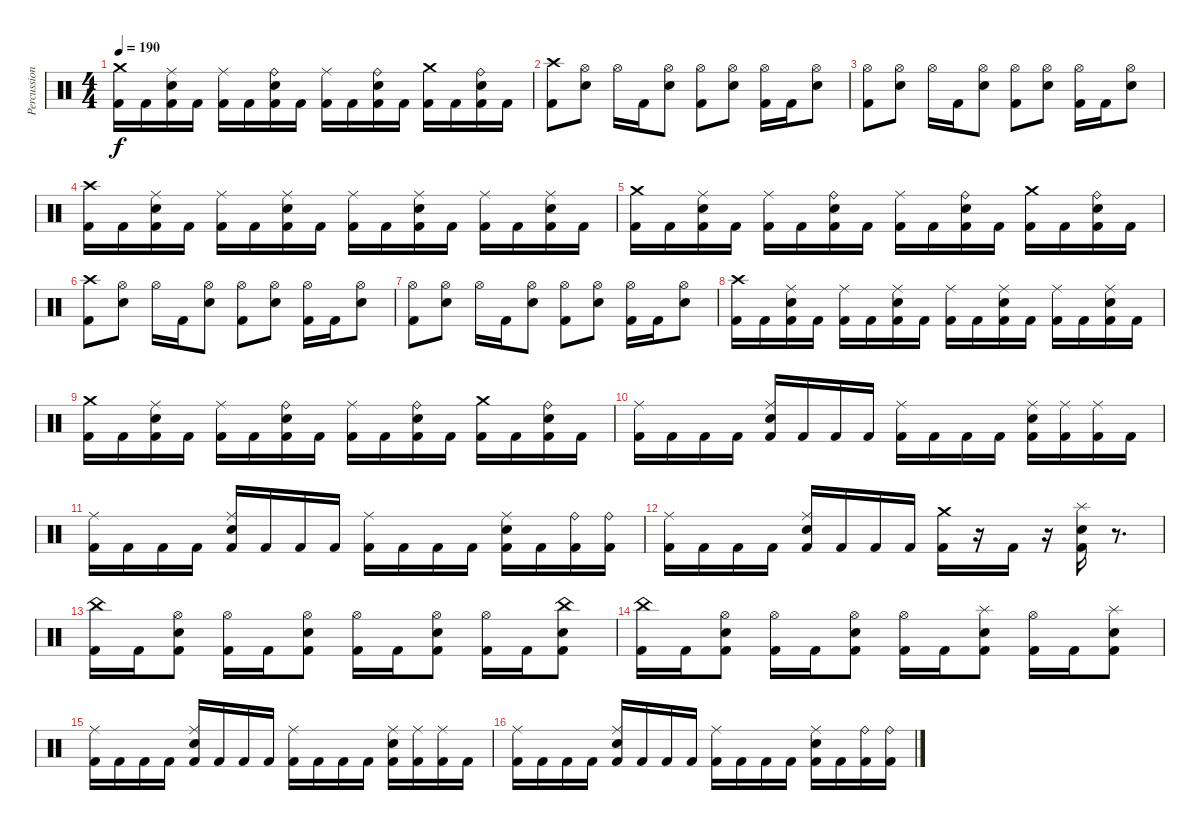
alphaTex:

\track ("Percussion" "Percussion") {instrument percussion}
\staff {score}
\articulation defaults
\ts (4 4)
\tempo 190
\clef neutral
\ks c
("Crash medium (hit)" "Kick (hit) 2").16{dy f} "Kick (hit) 2".16 ("Ride (middle)" "Snare (hit) 2" "Kick (hit) 2").16 "Kick (hit) 2".16 ("Ride (middle)" "Kick (hit) 2").16 "Kick (hit) 2".16 ("Ride (bell)" "Snare (hit) 2" "Kick (hit) 2").16 "Kick (hit) 2".16 ("Ride (middle)" "Kick (hit) 2").16 "Kick (hit) 2".16 ("Ride (bell)" "Snare (hit) 2" "Kick (hit) 2").16 "Kick (hit) 2".16 ("Crash medium (hit)" "Kick (hit) 2").16 "Kick (hit) 2".16 ("Ride (bell)" "Snare (hit) 2" "Kick (hit) 2").16 "Kick (hit) 2".16 |
("Crash high (hit)" "Kick (hit) 2").8 ("Hi-Hat (open)" "Snare (hit) 2").8 "Hi-Hat (open)".16 "Kick (hit) 2".16 ("Hi-Hat (open)" "Snare (hit) 2").8 ("Hi-Hat (open)" "Kick (hit) 2").8 ("Hi-Hat (open)" "Snare (hit) 2").8 ("Hi-Hat (open)" "Kick (hit) 2").16 "Kick (hit) 2".16 ("Hi-Hat (open)" "Snare (hit) 2").8 |
("Hi-Hat (open)" "Kick (hit) 2").8 ("Hi-Hat (open)" "Snare (hit) 2").8 "Hi-Hat (open)".16 "Kick (hit) 2".16 ("Hi-Hat (open)" "Snare (hit) 2").8 ("Hi-Hat (open)" "Kick (hit) 2").8 ("Hi-Hat (open)" "Snare (hit) 2").8 ("Hi-Hat (open)" "Kick (hit) 2").16 "Kick (hit) 2".16 ("Hi-Hat (open)" "Snare (hit) 2").8 |
("Crash high (hit)" "Kick (hit) 2").16 "Kick (hit) 2".16 ("Ride (middle)" "Snare (hit) 2" "Kick (hit) 2").16 "Kick (hit) 2".16 ("Ride (middle)" "Kick (hit) 2").16 "Kick (hit) 2".16 ("Ride (middle)" "Snare (hit) 2" "Kick (hit) 2").16 "Kick (hit) 2".16 ("Ride (middle)" "Kick (hit) 2").16 "Kick (hit) 2".16 ("Ride (middle)" "Snare (hit) 2" "Kick (hit) 2").16 "Kick (hit) 2".16 ("Ride (middle)" "Kick (hit) 2").16 "Kick (hit) 2".16 ("Ride (middle)" "Snare (hit) 2" "Kick (hit) 2").16 "Kick (hit) 2".16 |
("Crash medium (hit)" "Kick (hit) 2").16 "Kick (hit) 2".16 ("Ride (middle)" "Snare (hit) 2" "Kick (hit) 2").16 "Kick (hit) 2".16 ("Ride (middle)" "Kick (hit) 2").16 "Kick (hit) 2".16 ("Ride (bell)" "Snare (hit) 2" "Kick (hit) 2").16 "Kick (hit) 2".16 ("Ride (middle)" "Kick (hit) 2").16 "Kick (hit) 2".16 ("Ride (bell)" "Snare (hit) 2" "Kick (hit) 2").16 "Kick (hit) 2".16 ("Crash medium (hit)" "Kick (hit) 2").16 "Kick (hit) 2".16 ("Ride (bell)" "Snare (hit) 2" "Kick (hit) 2").16 "Kick (hit) 2".16 |
("Crash high (hit)" "Kick (hit) 2").8 ("Hi-Hat (open)" "Snare (hit) 2").8 "Hi-Hat (open)".16 "Kick (hit) 2".16 ("Hi-Hat (open)" "Snare (hit) 2").8 ("Hi-Hat (open)" "Kick (hit) 2").8 ("Hi-Hat (open)" "Snare (hit) 2").8 ("Hi-Hat (open)" "Kick (hit) 2").16 "Kick (hit) 2".16 ("Hi-Hat (open)" "Snare (hit) 2").8 |
("Hi-Hat (open)" "Kick (hit) 2").8 ("Hi-Hat (open)" "Snare (hit) 2").8 "Hi-Hat (open)".16 "Kick (hit) 2".16 ("Hi-Hat (open)" "Snare (hit) 2").8 ("Hi-Hat (open)" "Kick (hit) 2").8 ("Hi-Hat (open)" "Snare (hit) 2").8 ("Hi-Hat (open)" "Kick (hit) 2").16 "Kick (hit) 2".16 ("Hi-Hat (open)" "Snare (hit) 2").8 |
("Crash high (hit)" "Kick (hit) 2").16 "Kick (hit) 2".16 ("Ride (middle)" "Snare (hit) 2" "Kick (hit) 2").16 "Kick (hit) 2".16 ("Ride (middle)" "Kick (hit) 2").16 "Kick (hit) 2".16 ("Ride (middle)" "Snare (hit) 2" "Kick (hit) 2").16 "Kick (hit) 2".16 ("Ride (middle)" "Kick (hit) 2").16 "Kick (hit) 2".16 ("Ride (middle)" "Snare (hit) 2" "Kick (hit) 2").16 "Kick (hit) 2".16 ("Ride (middle)" "Kick (hit) 2").16 "Kick (hit) 2".16 ("Ride (middle)" "Snare (hit) 2" "Kick (hit) 2").16 "Kick (hit) 2".16 |
("Crash medium (hit)" "Kick (hit) 2").16 "Kick (hit) 2".16 ("Ride (middle)" "Snare (hit) 2" "Kick (hit) 2").16 "Kick (hit) 2".16 ("Ride (middle)" "Kick (hit) 2").16 "Kick (hit) 2".16 ("Ride (bell)" "Snare (hit) 2" "Kick (hit) 2").16 "Kick (hit) 2".16 ("Ride (middle)" "Kick (hit) 2").16 "Kick (hit) 2".16 ("Ride (bell)" "Snare (hit) 2" "Kick (hit) 2").16 "Kick (hit) 2".16 ("Crash medium (hit)" "Kick (hit) 2").16 "Kick (hit) 2".16 ("Ride (bell)" "Snare (hit) 2" "Kick (hit) 2").16 "Kick (hit) 2".16 |
("Ride (middle)" "Kick (hit) 2").16 "Kick (hit) 2".16 "Kick (hit) 2".16 "Kick (hit) 2".16 ("Ride (middle)" "Snare (hit) 2" "Kick (hit) 2").16 "Kick (hit) 2".16 "Kick (hit) 2".16 "Kick (hit) 2".16 ("Ride (middle)" "Kick (hit) 2").16 "Kick (hit) 2".16 "Kick (hit) 2".16 "Kick (hit) 2".16 ("Ride (middle)" "Snare (hit) 2" "Kick (hit) 2").16 ("Ride (middle)" "Kick (hit) 2").16 ("Ride (middle)" "Kick (hit) 2").16 "Kick (hit) 2".16 |
("Ride (middle)" "Kick (hit) 2").16 "Kick (hit) 2".16 "Kick (hit) 2".16 "Kick (hit) 2".16 ("Ride (middle)" "Snare (hit) 2" "Kick (hit) 2").16 "Kick (hit) 2".16 "Kick (hit) 2".16 "Kick (hit) 2".16 ("Ride (middle)" "Kick (hit) 2").16 "Kick (hit) 2".16 "Kick (hit) 2".16 "Kick (hit) 2".16 ("Ride (middle)" "Snare (hit) 2" "Kick (hit) 2").16 "Kick (hit) 2".16 ("Ride (bell)" "Kick (hit) 2").16 ("Ride (bell)" "Kick (hit) 2").16 |
("Ride (middle)" "Kick (hit) 2").16 "Kick (hit) 2".16 "Kick (hit) 2".16 "Kick (hit) 2".16 ("Ride (middle)" "Snare (hit) 2" "Kick (hit) 2").16 "Kick (hit) 2".16 "Kick (hit) 2".16 "Kick (hit) 2".16 ("Crash medium (hit)" "Kick (hit) 2").16 r.16 "Kick (hit) 2".16 r.16 ("Splash (hit)" "Snare (hit) 2" "Kick (hit) 2").16 r.8{d} |
("China (hit)" "Kick (hit) 2").16 "Kick (hit) 2".16 ("Hi-Hat (open)" "Snare (hit) 2" "Kick (hit) 2").8 ("Hi-Hat (open)" "Kick (hit) 2").16 "Kick (hit) 2".16 ("Hi-Hat (open)" "Snare (hit) 2" "Kick (hit) 2").8 ("Hi-Hat (open)" "Kick (hit) 2").16 "Kick (hit) 2".16 ("Hi-Hat (open)" "Snare (hit) 2" "Kick (hit) 2").8 ("Hi-Hat (open)" "Kick (hit) 2").16 "Kick (hit) 2".16 ("China (hit)" "Snare (hit) 2" "Kick (hit) 2").8 |
("China (hit)" "Kick (hit) 2").16 "Kick (hit) 2".16 ("Hi-Hat (open)" "Snare (hit) 2" "Kick (hit) 2").8 ("Hi-Hat (open)" "Kick (hit) 2").16 "Kick (hit) 2".16 ("Hi-Hat (open)" "Snare (hit) 2" "Kick (hit) 2").8 ("Hi-Hat (open)" "Kick (hit) 2").16 "Kick (hit) 2".16 ("Splash (hit)" "Snare (hit) 2" "Kick (hit) 2").8 ("Hi-Hat (open)" "Kick (hit) 2").16 "Kick (hit) 2".16 ("Splash (hit)" "Snare (hit) 2" "Kick (hit) 2").8 |
("Ride (middle)" "Kick (hit) 2").16 "Kick (hit) 2".16 "Kick (hit) 2".16 "Kick (hit) 2".16 ("Ride (middle)" "Snare (hit) 2" "Kick (hit) 2").16 "Kick (hit) 2".16 "Kick (hit) 2".16 "Kick (hit) 2".16 ("Ride (middle)" "Kick (hit) 2").16 "Kick (hit) 2".16 "Kick (hit) 2".16 "Kick (hit) 2".16 ("Ride (middle)" "Snare (hit) 2" "Kick (hit) 2").16 ("Ride (middle)" "Kick (hit) 2").16 ("Ride (middle)" "Kick (hit) 2").16 "Kick (hit) 2".16 |
("Ride (middle)" "Kick (hit) 2").16 "Kick (hit) 2".16 "Kick (hit) 2".16 "Kick (hit) 2".16 ("Ride (middle)" "Snare (hit) 2" "Kick (hit) 2").16 "Kick (hit) 2".16 "Kick (hit) 2".16 "Kick (hit) 2".16 ("Ride (middle)" "Kick (hit) 2").16 "Kick (hit) 2".16 "Kick (hit) 2".16 "Kick (hit) 2".16 ("Ride (middle)" "Snare (hit) 2" "Kick (hit) 2").16 "Kick (hit) 2".16 ("Ride (bell)" "Kick (hit) 2").16 ("Ride (bell)" "Kick (hit) 2").16
